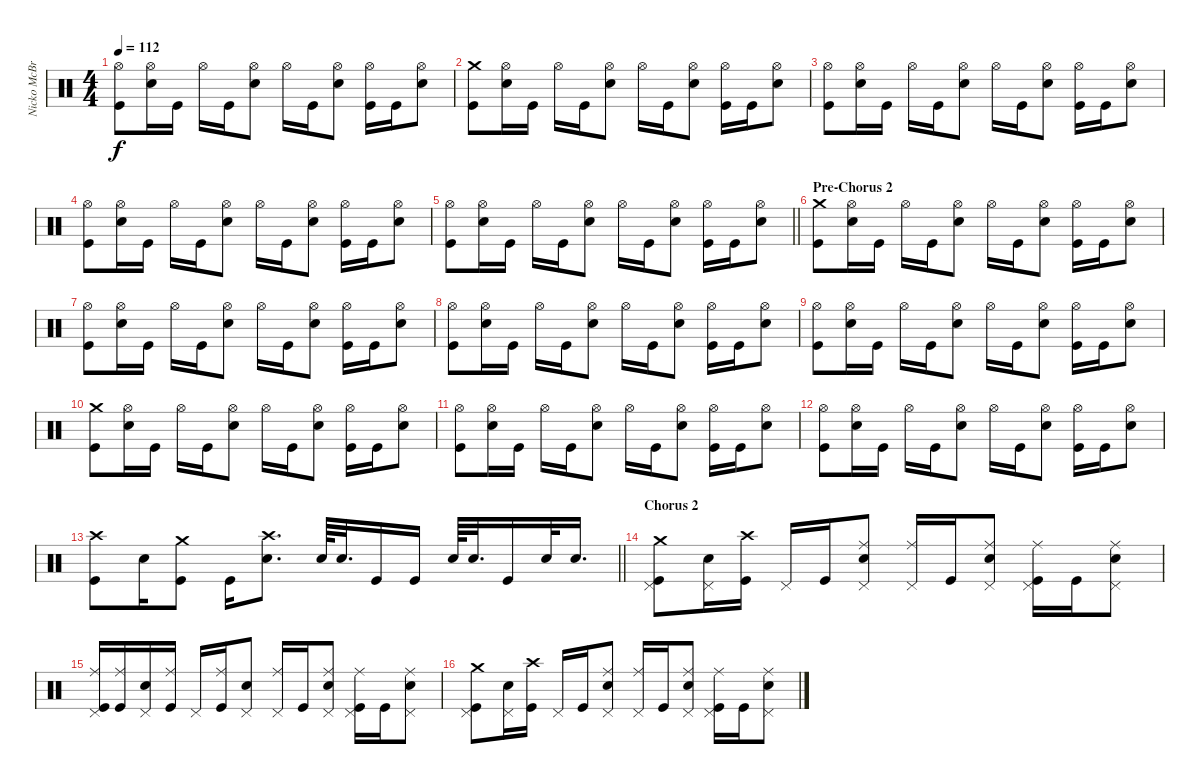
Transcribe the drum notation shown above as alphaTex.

\track ("Nicko McBrain" "Nicko McBr") {instrument percussion}
\staff {score}
\articulation defaults
\ts (4 4)
\tempo 112
\clef neutral
\ks c
("Hi-Hat (open)" "Kick (hit)").8{dy f} ("Hi-Hat (open)" "Snare (hit) 2").16 "Kick (hit)".16 "Hi-Hat (open)".16 "Kick (hit)".16 ("Hi-Hat (open)" "Snare (hit) 2").8 "Hi-Hat (open)".16 "Kick (hit)".16 ("Hi-Hat (open)" "Snare (hit) 2").8 ("Hi-Hat (open)" "Kick (hit)").16 "Kick (hit)".16 ("Hi-Hat (open)" "Snare (hit) 2").8 |
("Crash medium (hit)" "Kick (hit)").8 ("Hi-Hat (open)" "Snare (hit) 2").16 "Kick (hit)".16 "Hi-Hat (open)".16 "Kick (hit)".16 ("Hi-Hat (open)" "Snare (hit) 2").8 "Hi-Hat (open)".16 "Kick (hit)".16 ("Hi-Hat (open)" "Snare (hit) 2").8 ("Hi-Hat (open)" "Kick (hit)").16 "Kick (hit)".16 ("Hi-Hat (open)" "Snare (hit) 2").8 |
("Hi-Hat (open)" "Kick (hit)").8 ("Hi-Hat (open)" "Snare (hit) 2").16 "Kick (hit)".16 "Hi-Hat (open)".16 "Kick (hit)".16 ("Hi-Hat (open)" "Snare (hit) 2").8 "Hi-Hat (open)".16 "Kick (hit)".16 ("Hi-Hat (open)" "Snare (hit) 2").8 ("Hi-Hat (open)" "Kick (hit)").16 "Kick (hit)".16 ("Hi-Hat (open)" "Snare (hit) 2").8 |
("Hi-Hat (open)" "Kick (hit)").8 ("Hi-Hat (open)" "Snare (hit) 2").16 "Kick (hit)".16 "Hi-Hat (open)".16 "Kick (hit)".16 ("Hi-Hat (open)" "Snare (hit) 2").8 "Hi-Hat (open)".16 "Kick (hit)".16 ("Hi-Hat (open)" "Snare (hit) 2").8 ("Hi-Hat (open)" "Kick (hit)").16 "Kick (hit)".16 ("Hi-Hat (open)" "Snare (hit) 2").8 |
\barLineRight lightlight
("Hi-Hat (open)" "Kick (hit)").8 ("Hi-Hat (open)" "Snare (hit) 2").16 "Kick (hit)".16 "Hi-Hat (open)".16 "Kick (hit)".16 ("Hi-Hat (open)" "Snare (hit) 2").8 "Hi-Hat (open)".16 "Kick (hit)".16 ("Hi-Hat (open)" "Snare (hit) 2").8 ("Hi-Hat (open)" "Kick (hit)").16 "Kick (hit)".16 ("Hi-Hat (open)" "Snare (hit) 2").8 |
\section ("" "Pre-Chorus 2")
("Crash medium (hit)" "Kick (hit)").8 ("Hi-Hat (open)" "Snare (hit) 2").16 "Kick (hit)".16 "Hi-Hat (open)".16 "Kick (hit)".16 ("Hi-Hat (open)" "Snare (hit) 2").8 "Hi-Hat (open)".16 "Kick (hit)".16 ("Hi-Hat (open)" "Snare (hit) 2").8 ("Hi-Hat (open)" "Kick (hit)").16 "Kick (hit)".16 ("Hi-Hat (open)" "Snare (hit) 2").8 |
("Hi-Hat (open)" "Kick (hit)").8 ("Hi-Hat (open)" "Snare (hit) 2").16 "Kick (hit)".16 "Hi-Hat (open)".16 "Kick (hit)".16 ("Hi-Hat (open)" "Snare (hit) 2").8 "Hi-Hat (open)".16 "Kick (hit)".16 ("Hi-Hat (open)" "Snare (hit) 2").8 ("Hi-Hat (open)" "Kick (hit)").16 "Kick (hit)".16 ("Hi-Hat (open)" "Snare (hit) 2").8 |
("Hi-Hat (open)" "Kick (hit)").8 ("Hi-Hat (open)" "Snare (hit) 2").16 "Kick (hit)".16 "Hi-Hat (open)".16 "Kick (hit)".16 ("Hi-Hat (open)" "Snare (hit) 2").8 "Hi-Hat (open)".16 "Kick (hit)".16 ("Hi-Hat (open)" "Snare (hit) 2").8 ("Hi-Hat (open)" "Kick (hit)").16 "Kick (hit)".16 ("Hi-Hat (open)" "Snare (hit) 2").8 |
("Hi-Hat (open)" "Kick (hit)").8 ("Hi-Hat (open)" "Snare (hit) 2").16 "Kick (hit)".16 "Hi-Hat (open)".16 "Kick (hit)".16 ("Hi-Hat (open)" "Snare (hit) 2").8 "Hi-Hat (open)".16 "Kick (hit)".16 ("Hi-Hat (open)" "Snare (hit) 2").8 ("Hi-Hat (open)" "Kick (hit)").16 "Kick (hit)".16 ("Hi-Hat (open)" "Snare (hit) 2").8 |
("Crash medium (hit)" "Kick (hit)").8 ("Hi-Hat (open)" "Snare (hit) 2").16 "Kick (hit)".16 "Hi-Hat (open)".16 "Kick (hit)".16 ("Hi-Hat (open)" "Snare (hit) 2").8 "Hi-Hat (open)".16 "Kick (hit)".16 ("Hi-Hat (open)" "Snare (hit) 2").8 ("Hi-Hat (open)" "Kick (hit)").16 "Kick (hit)".16 ("Hi-Hat (open)" "Snare (hit) 2").8 |
("Hi-Hat (open)" "Kick (hit)").8 ("Hi-Hat (open)" "Snare (hit) 2").16 "Kick (hit)".16 "Hi-Hat (open)".16 "Kick (hit)".16 ("Hi-Hat (open)" "Snare (hit) 2").8 "Hi-Hat (open)".16 "Kick (hit)".16 ("Hi-Hat (open)" "Snare (hit) 2").8 ("Hi-Hat (open)" "Kick (hit)").16 "Kick (hit)".16 ("Hi-Hat (open)" "Snare (hit) 2").8 |
("Hi-Hat (open)" "Kick (hit)").8 ("Hi-Hat (open)" "Snare (hit) 2").16 "Kick (hit)".16 "Hi-Hat (open)".16 "Kick (hit)".16 ("Hi-Hat (open)" "Snare (hit) 2").8 "Hi-Hat (open)".16 "Kick (hit)".16 ("Hi-Hat (open)" "Snare (hit) 2").8 ("Hi-Hat (open)" "Kick (hit)").16 "Kick (hit)".16 ("Hi-Hat (open)" "Snare (hit) 2").8 |
\barLineRight lightlight
("Crash high (hit)" "Kick (hit)").8 "Snare (hit) 2".16 ("Crash medium (hit)" "Kick (hit)").8 "Kick (hit)".16 ("Crash high (hit)" "Snare (hit) 2").8{d} "Snare (hit) 2".64 "Snare (hit) 2".32{d} "Kick (hit)".16 "Kick (hit)".16 "Snare (hit) 2".64 "Snare (hit) 2".32{d} "Kick (hit)".16 "Snare (hit) 2".32 "Snare (hit) 2".16{d} |
\section ("" "Chorus 2")
("Crash medium (hit)" "Pedal Hi-Hat (hit)" "Kick (hit)").8 ("Snare (hit) 2" "Pedal Hi-Hat (hit)").16 ("Crash high (hit)" "Kick (hit)").16 "Pedal Hi-Hat (hit)".16 "Kick (hit)".16 ("Ride (middle)" "Snare (hit) 2" "Pedal Hi-Hat (hit)").8 ("Ride (middle)" "Pedal Hi-Hat (hit)").16 "Kick (hit)".16 ("Ride (middle)" "Snare (hit) 2" "Pedal Hi-Hat (hit)").8 ("Ride (middle)" "Pedal Hi-Hat (hit)" "Kick (hit)").16 "Kick (hit)".16 ("Ride (middle)" "Snare (hit) 2" "Pedal Hi-Hat (hit)").8 |
("Ride (middle)" "Pedal Hi-Hat (hit)" "Kick (hit)").16 ("Ride (middle)" "Kick (hit)").16 ("Snare (hit) 2" "Pedal Hi-Hat (hit)").16 ("Ride (middle)" "Kick (hit)").16 "Pedal Hi-Hat (hit)".16 ("Ride (middle)" "Kick (hit)").16 ("Snare (hit) 2" "Pedal Hi-Hat (hit)").8 ("Ride (middle)" "Pedal Hi-Hat (hit)").16 "Kick (hit)".16 ("Ride (middle)" "Snare (hit) 2" "Pedal Hi-Hat (hit)").8 ("Ride (middle)" "Pedal Hi-Hat (hit)" "Kick (hit)").16 "Kick (hit)".16 ("Ride (middle)" "Snare (hit) 2" "Pedal Hi-Hat (hit)").8 |
("Crash medium (hit)" "Pedal Hi-Hat (hit)" "Kick (hit)").8 ("Snare (hit) 2" "Pedal Hi-Hat (hit)").16 ("Crash high (hit)" "Kick (hit)").16 "Pedal Hi-Hat (hit)".16 "Kick (hit)".16 ("Ride (middle)" "Snare (hit) 2" "Pedal Hi-Hat (hit)").8 ("Ride (middle)" "Pedal Hi-Hat (hit)").16 "Kick (hit)".16 ("Ride (middle)" "Snare (hit) 2" "Pedal Hi-Hat (hit)").8 ("Ride (middle)" "Pedal Hi-Hat (hit)" "Kick (hit)").16 "Kick (hit)".16 ("Ride (middle)" "Snare (hit) 2" "Pedal Hi-Hat (hit)").8
